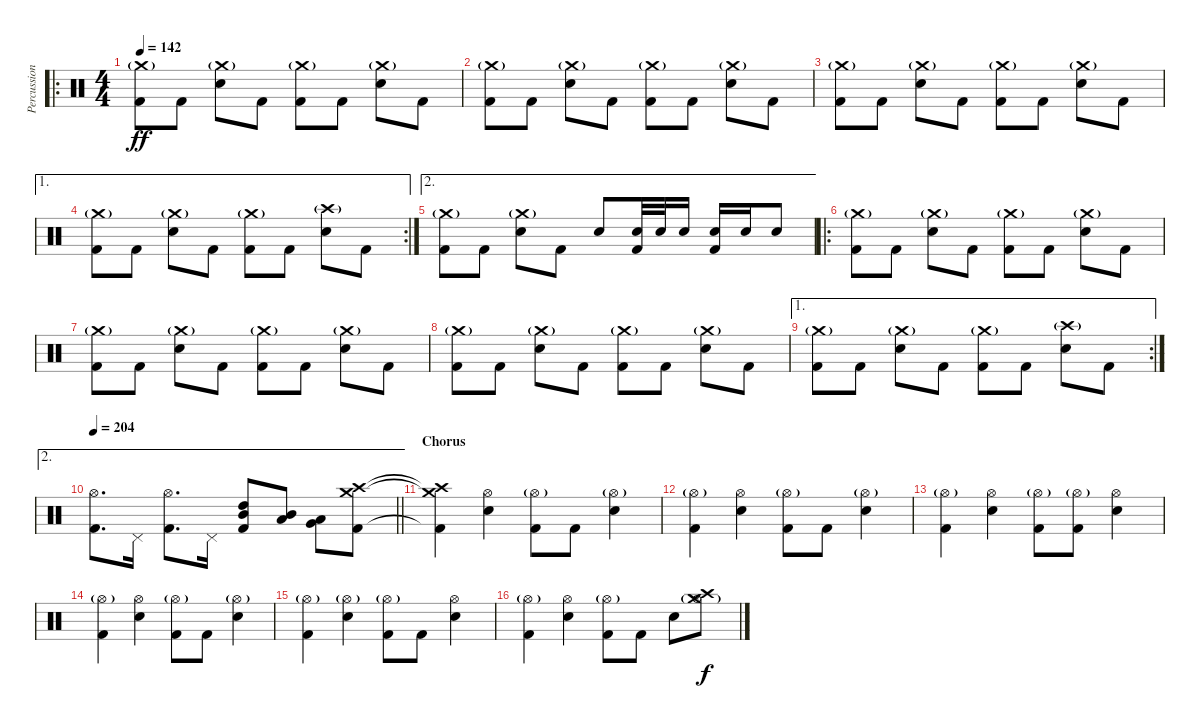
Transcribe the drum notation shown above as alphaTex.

\track ("Percussion" "Percussion") {instrument percussion}
\staff {score}
\articulation defaults
\ro
\ts (4 4)
\tempo 142
\clef neutral
\ks c
("Crash medium (hit)"{g} "Kick (hit) 2").8{dy ff} "Kick (hit) 2".8 ("Crash medium (hit)"{g} "Electric Snare (hit)").8 "Kick (hit) 2".8 ("Crash medium (hit)"{g} "Kick (hit) 2").8 "Kick (hit) 2".8 ("Crash medium (hit)"{g} "Electric Snare (hit)").8 "Kick (hit) 2".8 |
("Crash medium (hit)"{g} "Kick (hit) 2").8 "Kick (hit) 2".8 ("Crash medium (hit)"{g} "Electric Snare (hit)").8 "Kick (hit) 2".8 ("Crash medium (hit)"{g} "Kick (hit) 2").8 "Kick (hit) 2".8 ("Crash medium (hit)"{g} "Electric Snare (hit)").8 "Kick (hit) 2".8 |
("Crash medium (hit)"{g} "Kick (hit) 2").8 "Kick (hit) 2".8 ("Crash medium (hit)"{g} "Electric Snare (hit)").8 "Kick (hit) 2".8 ("Crash medium (hit)"{g} "Kick (hit) 2").8 "Kick (hit) 2".8 ("Crash medium (hit)"{g} "Electric Snare (hit)").8 "Kick (hit) 2".8 |
\ae 1
\rc 2
("Crash medium (hit)"{g} "Kick (hit) 2").8 "Kick (hit) 2".8 ("Crash medium (hit)"{g} "Electric Snare (hit)").8 "Kick (hit) 2".8 ("Crash medium (hit)"{g} "Kick (hit) 2").8 "Kick (hit) 2".8 ("Crash high (hit)"{g} "Electric Snare (hit)").8 "Kick (hit) 2".8 |
\ae 2
("Crash medium (hit)"{g} "Kick (hit) 2").8 "Kick (hit) 2".8 ("Crash medium (hit)"{g} "Electric Snare (hit)").8 "Kick (hit) 2".8 "Electric Snare (hit)".8 ("Electric Snare (hit)" "Kick (hit) 2").32 "Electric Snare (hit)".32 "Electric Snare (hit)".16 ("Electric Snare (hit)" "Kick (hit) 2").16 "Electric Snare (hit)".16 "Electric Snare (hit)".8 |
\ro
("Crash medium (hit)"{g} "Kick (hit) 2").8 "Kick (hit) 2".8 ("Crash medium (hit)"{g} "Electric Snare (hit)").8 "Kick (hit) 2".8 ("Crash medium (hit)"{g} "Kick (hit) 2").8 "Kick (hit) 2".8 ("Crash medium (hit)"{g} "Electric Snare (hit)").8 "Kick (hit) 2".8 |
("Crash medium (hit)"{g} "Kick (hit) 2").8 "Kick (hit) 2".8 ("Crash medium (hit)"{g} "Electric Snare (hit)").8 "Kick (hit) 2".8 ("Crash medium (hit)"{g} "Kick (hit) 2").8 "Kick (hit) 2".8 ("Crash medium (hit)"{g} "Electric Snare (hit)").8 "Kick (hit) 2".8 |
("Crash medium (hit)"{g} "Kick (hit) 2").8 "Kick (hit) 2".8 ("Crash medium (hit)"{g} "Electric Snare (hit)").8 "Kick (hit) 2".8 ("Crash medium (hit)"{g} "Kick (hit) 2").8 "Kick (hit) 2".8 ("Crash medium (hit)"{g} "Electric Snare (hit)").8 "Kick (hit) 2".8 |
\ae 1
\rc 2
("Crash medium (hit)"{g} "Kick (hit) 2").8 "Kick (hit) 2".8 ("Crash medium (hit)"{g} "Electric Snare (hit)").8 "Kick (hit) 2".8 ("Crash medium (hit)"{g} "Kick (hit) 2").8 "Kick (hit) 2".8 ("Crash high (hit)"{g} "Electric Snare (hit)").8 "Kick (hit) 2".8 |
\ae 2
\tempo 204
\barLineRight lightlight
("Hi-Hat (open)" "Kick (hit) 2").8{d} "Pedal Hi-Hat (hit)".16 ("Hi-Hat (open)" "Kick (hit) 2").8{d} "Pedal Hi-Hat (hit)".16 ("High Tom (hit)" "Mid Tom (hit)" "Kick (hit) 2").8 ("Mid Tom (hit)" "Low Tom (hit)").8 ("Low Tom (hit)" "Very Low Tom (hit)").8 ("Crash medium (hit)" "Crash high (hit)" "Kick (hit) 2").8 |
\section ("" "Chorus")
("Crash medium (hit)"{t} "Crash high (hit)"{t} "Kick (hit) 2"{t}).4 ("Electric Snare (hit)" "Hi-Hat (open)").4 ("Hi-Hat (open)"{g} "Kick (hit) 2").8 "Kick (hit) 2".8 ("Electric Snare (hit)" "Hi-Hat (open)"{g}).4 |
("Hi-Hat (open)"{g} "Kick (hit) 2").4 ("Electric Snare (hit)" "Hi-Hat (open)").4 ("Hi-Hat (open)"{g} "Kick (hit) 2").8 "Kick (hit) 2".8 ("Electric Snare (hit)" "Hi-Hat (open)"{g}).4 |
("Hi-Hat (open)"{g} "Kick (hit) 2").4 ("Electric Snare (hit)" "Hi-Hat (open)").4 ("Hi-Hat (open)"{g} "Kick (hit) 2").8 ("Hi-Hat (open)"{g} "Kick (hit) 2").8 ("Electric Snare (hit)" "Hi-Hat (open)").4 |
("Hi-Hat (open)"{g} "Kick (hit) 2").4 ("Electric Snare (hit)" "Hi-Hat (open)").4 ("Hi-Hat (open)"{g} "Kick (hit) 2").8 "Kick (hit) 2".8 ("Electric Snare (hit)" "Hi-Hat (open)"{g}).4 |
("Hi-Hat (open)"{g} "Kick (hit) 2").4 ("Electric Snare (hit)" "Hi-Hat (open)"{g}).4 ("Hi-Hat (open)"{g} "Kick (hit) 2").8 "Kick (hit) 2".8 ("Electric Snare (hit)" "Hi-Hat (open)").4 |
("Hi-Hat (open)"{g} "Kick (hit) 2").4 ("Electric Snare (hit)" "Hi-Hat (open)").4 ("Hi-Hat (open)"{g} "Kick (hit) 2").8 "Kick (hit) 2".8 "Electric Snare (hit)".8 ("Crash medium (hit)" "Crash high (hit)" "Hi-Hat (open)"{g}).8{dy f}
